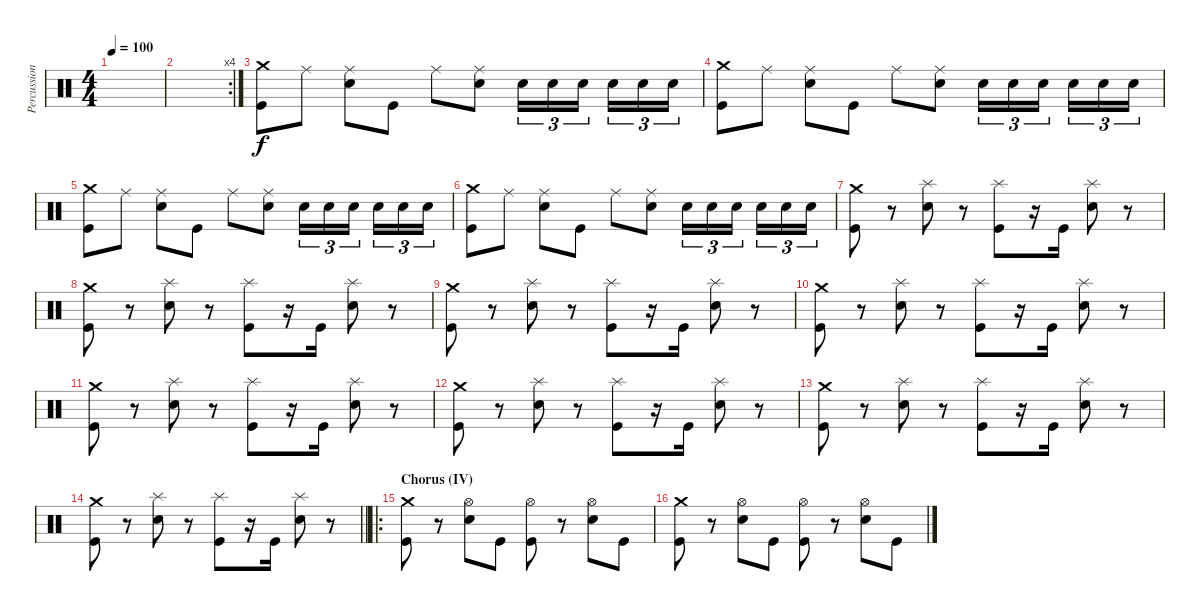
\track ("Percussion" "Percussion") {instrument percussion}
\staff {score}
\articulation defaults
\ts (4 4)
\tempo 100
\clef neutral
\ks c
|
\rc 4
|
("Crash medium (hit)" "Kick (hit)").8 "Ride (middle)".8 ("Ride (middle)" "Snare (hit) 2").8 "Kick (hit)".8 "Ride (middle)".8 ("Ride (middle)" "Snare (hit) 2").8 "Snare (hit) 2".16{tu (3 2)} "Snare (hit) 2".16{tu (3 2)} "Snare (hit) 2".16{tu (3 2) beam splitsecondary} "Snare (hit) 2".16{tu (3 2)} "Snare (hit) 2".16{tu (3 2)} "Snare (hit) 2".16{tu (3 2)} |
("Crash medium (hit)" "Kick (hit)").8 "Ride (middle)".8 ("Ride (middle)" "Snare (hit) 2").8 "Kick (hit)".8 "Ride (middle)".8 ("Ride (middle)" "Snare (hit) 2").8 "Snare (hit) 2".16{tu (3 2)} "Snare (hit) 2".16{tu (3 2)} "Snare (hit) 2".16{tu (3 2) beam splitsecondary} "Snare (hit) 2".16{tu (3 2)} "Snare (hit) 2".16{tu (3 2)} "Snare (hit) 2".16{tu (3 2)} |
("Crash medium (hit)" "Kick (hit)").8 "Ride (middle)".8 ("Ride (middle)" "Snare (hit) 2").8 "Kick (hit)".8 "Ride (middle)".8 ("Ride (middle)" "Snare (hit) 2").8 "Snare (hit) 2".16{tu (3 2)} "Snare (hit) 2".16{tu (3 2)} "Snare (hit) 2".16{tu (3 2) beam splitsecondary} "Snare (hit) 2".16{tu (3 2)} "Snare (hit) 2".16{tu (3 2)} "Snare (hit) 2".16{tu (3 2)} |
("Crash medium (hit)" "Kick (hit)").8 "Ride (middle)".8 ("Ride (middle)" "Snare (hit) 2").8 "Kick (hit)".8 "Ride (middle)".8 ("Ride (middle)" "Snare (hit) 2").8 "Snare (hit) 2".16{tu (3 2)} "Snare (hit) 2".16{tu (3 2)} "Snare (hit) 2".16{tu (3 2) beam splitsecondary} "Snare (hit) 2".16{tu (3 2)} "Snare (hit) 2".16{tu (3 2)} "Snare (hit) 2".16{tu (3 2)} |
("Crash medium (hit)" "Kick (hit)").8 r.8 ("Splash (hit)" "Snare (hit) 2").8 r.8 ("Splash (hit)" "Kick (hit)").8 r.16 "Kick (hit)".16 ("Splash (hit)" "Snare (hit) 2").8 r.8 |
("Crash medium (hit)" "Kick (hit)").8 r.8 ("Splash (hit)" "Snare (hit) 2").8 r.8 ("Splash (hit)" "Kick (hit)").8 r.16 "Kick (hit)".16 ("Splash (hit)" "Snare (hit) 2").8 r.8 |
("Crash medium (hit)" "Kick (hit)").8 r.8 ("Splash (hit)" "Snare (hit) 2").8 r.8 ("Splash (hit)" "Kick (hit)").8 r.16 "Kick (hit)".16 ("Splash (hit)" "Snare (hit) 2").8 r.8 |
("Crash medium (hit)" "Kick (hit)").8 r.8 ("Splash (hit)" "Snare (hit) 2").8 r.8 ("Splash (hit)" "Kick (hit)").8 r.16 "Kick (hit)".16 ("Splash (hit)" "Snare (hit) 2").8 r.8 |
("Crash medium (hit)" "Kick (hit)").8 r.8 ("Splash (hit)" "Snare (hit) 2").8 r.8 ("Splash (hit)" "Kick (hit)").8 r.16 "Kick (hit)".16 ("Splash (hit)" "Snare (hit) 2").8 r.8 |
("Crash medium (hit)" "Kick (hit)").8 r.8 ("Splash (hit)" "Snare (hit) 2").8 r.8 ("Splash (hit)" "Kick (hit)").8 r.16 "Kick (hit)".16 ("Splash (hit)" "Snare (hit) 2").8 r.8 |
("Crash medium (hit)" "Kick (hit)").8 r.8 ("Splash (hit)" "Snare (hit) 2").8 r.8 ("Splash (hit)" "Kick (hit)").8 r.16 "Kick (hit)".16 ("Splash (hit)" "Snare (hit) 2").8 r.8 |
\barLineRight lightlight
("Crash medium (hit)" "Kick (hit)").8 r.8 ("Splash (hit)" "Snare (hit) 2").8 r.8 ("Splash (hit)" "Kick (hit)").8 r.16 "Kick (hit)".16 ("Splash (hit)" "Snare (hit) 2").8 r.8 |
\ro
\section ("" "Chorus (IV)")
("Crash medium (hit)" "Kick (hit)").8 r.8 ("Hi-Hat (open)" "Snare (hit) 2").8 "Kick (hit)".8 ("Hi-Hat (open)" "Kick (hit)").8 r.8 ("Hi-Hat (open)" "Snare (hit) 2").8 "Kick (hit)".8 |
("Crash medium (hit)" "Kick (hit)").8 r.8 ("Hi-Hat (open)" "Snare (hit) 2").8 "Kick (hit)".8 ("Hi-Hat (open)" "Kick (hit)").8 r.8 ("Hi-Hat (open)" "Snare (hit) 2").8 "Kick (hit)".8
